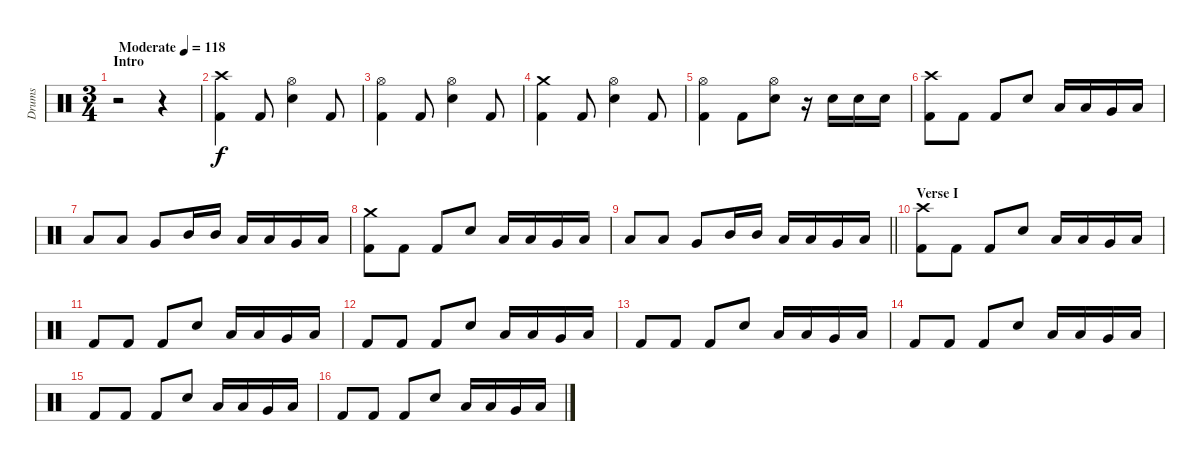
\track ("Drums" "Drums") {instrument percussion}
\staff {score}
\articulation defaults
\ts (3 4)
\section ("" "Intro")
\tempo (118 "Moderate")
\clef neutral
\ks c
r.2{dy f} r.4 |
("Crash high (hit)" "Kick (hit) 2").4 "Kick (hit) 2".8 ("Hi-Hat (open)" "Snare (hit) 2").4 "Kick (hit) 2".8 |
("Hi-Hat (open)" "Kick (hit) 2").4 "Kick (hit) 2".8 ("Hi-Hat (open)" "Snare (hit) 2").4 "Kick (hit) 2".8 |
("Crash medium (hit)" "Kick (hit) 2").4 "Kick (hit) 2".8 ("Hi-Hat (open)" "Snare (hit) 2").4 "Kick (hit) 2".8 |
("Hi-Hat (open)" "Kick (hit) 2").4 "Kick (hit) 2".8 ("Hi-Hat (open)" "Snare (hit) 2").8 r.16 "Snare (hit) 2".16 "Snare (hit) 2".16 "Snare (hit) 2".16 |
("Crash high (hit)" "Kick (hit) 2").8 "Kick (hit) 2".8 "Kick (hit) 2".8 "Snare (hit) 2".8 "Low Tom (hit)".16 "Low Tom (hit)".16 "Very Low Tom (hit)".16 "Low Floor Tom (hit)".16 |
"Low Floor Tom (hit)".8 "Low Floor Tom (hit)".8 "Very Low Tom (hit)".8 "Mid Tom (hit)".16 "Mid Tom (hit)".16 "Low Tom (hit)".16 "Low Tom (hit)".16 "Very Low Tom (hit)".16 "Low Floor Tom (hit)".16 |
("Crash medium (hit)" "Kick (hit) 2").8 "Kick (hit) 2".8 "Kick (hit) 2".8 "Snare (hit) 2".8 "Low Tom (hit)".16 "Low Tom (hit)".16 "Very Low Tom (hit)".16 "Low Floor Tom (hit)".16 |
\barLineRight lightlight "Low Floor Tom (hit)".8 "Low Floor Tom (hit)".8 "Very Low Tom (hit)".8 "Mid Tom (hit)".16 "Mid Tom (hit)".16 "Low Tom (hit)".16 "Low Tom (hit)".16 "Very Low Tom (hit)".16 "Low Floor Tom (hit)".16
|
\section ("" "Verse I")
("Crash high (hit)" "Kick (hit) 2").8 "Kick (hit) 2".8 "Kick (hit) 2".8 "Snare (hit) 2".8 "Low Tom (hit)".16 "Low Tom (hit)".16 "Very Low Tom (hit)".16 "Low Floor Tom (hit)".16 |
"Kick (hit) 2".8 "Kick (hit) 2".8 "Kick (hit) 2".8 "Snare (hit) 2".8 "Low Tom (hit)".16 "Low Tom (hit)".16 "Very Low Tom (hit)".16 "Low Floor Tom (hit)".16 |
"Kick (hit) 2".8 "Kick (hit) 2".8 "Kick (hit) 2".8 "Snare (hit) 2".8 "Low Tom (hit)".16 "Low Tom (hit)".16 "Very Low Tom (hit)".16 "Low Floor Tom (hit)".16 |
"Kick (hit) 2".8 "Kick (hit) 2".8 "Kick (hit) 2".8 "Snare (hit) 2".8 "Low Tom (hit)".16 "Low Tom (hit)".16 "Very Low Tom (hit)".16 "Low Floor Tom (hit)".16 |
"Kick (hit) 2".8 "Kick (hit) 2".8 "Kick (hit) 2".8 "Snare (hit) 2".8 "Low Tom (hit)".16 "Low Tom (hit)".16 "Very Low Tom (hit)".16 "Low Floor Tom (hit)".16 |
"Kick (hit) 2".8 "Kick (hit) 2".8 "Kick (hit) 2".8 "Snare (hit) 2".8 "Low Tom (hit)".16 "Low Tom (hit)".16 "Very Low Tom (hit)".16 "Low Floor Tom (hit)".16 |
"Kick (hit) 2".8 "Kick (hit) 2".8 "Kick (hit) 2".8 "Snare (hit) 2".8 "Low Tom (hit)".16 "Low Tom (hit)".16 "Very Low Tom (hit)".16 "Low Floor Tom (hit)".16
